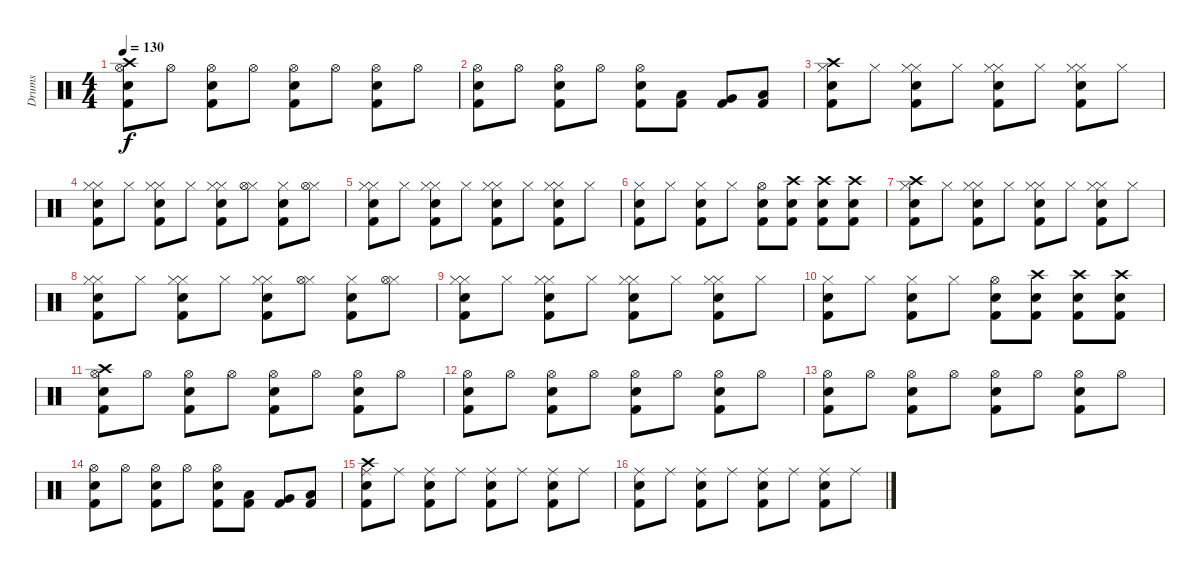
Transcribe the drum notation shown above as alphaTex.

\track ("Drums" "Drums") {instrument percussion}
\staff {score}
\articulation defaults
\ts (4 4)
\tempo 130
\clef neutral
\ks c
("Hi-Hat (open)" "Crash high (hit)" "Electric Snare (hit)" "Kick (hit) 2").8{dy f} "Hi-Hat (open)".8 ("Hi-Hat (open)" "Electric Snare (hit)" "Kick (hit) 2").8 "Hi-Hat (open)".8 ("Hi-Hat (open)" "Electric Snare (hit)" "Kick (hit) 2").8 "Hi-Hat (open)".8 ("Hi-Hat (open)" "Electric Snare (hit)" "Kick (hit) 2").8 "Hi-Hat (open)".8 |
("Hi-Hat (open)" "Electric Snare (hit)" "Kick (hit) 2").8 "Hi-Hat (open)".8 ("Hi-Hat (open)" "Electric Snare (hit)" "Kick (hit) 2").8 "Hi-Hat (open)".8 ("Hi-Hat (open)" "Electric Snare (hit)" "Kick (hit) 2").8 ("Low Tom (hit)" "Kick (hit) 2").8 ("Very Low Tom (hit)" "Kick (hit) 2").8 ("Low Floor Tom (hit)" "Kick (hit) 2").8 |
("Hi-Hat (closed)" "Crash high (hit)" "Electric Snare (hit)" "Kick (hit) 2").8 "Hi-Hat (closed)".8 ("Hi-Hat (closed)" "Hi-Hat (closed)" "Electric Snare (hit)" "Kick (hit) 2").8 "Hi-Hat (closed)".8 ("Hi-Hat (closed)" "Hi-Hat (closed)" "Electric Snare (hit)" "Kick (hit) 2").8 "Hi-Hat (closed)".8 ("Hi-Hat (closed)" "Hi-Hat (closed)" "Electric Snare (hit)" "Kick (hit) 2").8 "Hi-Hat (closed)".8 |
("Hi-Hat (closed)" "Hi-Hat (closed)" "Electric Snare (hit)" "Kick (hit) 2").8 "Hi-Hat (closed)".8 ("Hi-Hat (closed)" "Hi-Hat (closed)" "Electric Snare (hit)" "Kick (hit) 2").8 "Hi-Hat (closed)".8 ("Hi-Hat (closed)" "Hi-Hat (closed)" "Electric Snare (hit)" "Kick (hit) 2").8 ("Hi-Hat (closed)" "Hi-Hat (open)").8 ("Hi-Hat (closed)" "Electric Snare (hit)" "Kick (hit) 2").8 ("Hi-Hat (closed)" "Hi-Hat (open)").8 |
("Hi-Hat (closed)" "Hi-Hat (closed)" "Electric Snare (hit)" "Kick (hit) 2").8 "Hi-Hat (closed)".8 ("Hi-Hat (closed)" "Hi-Hat (closed)" "Electric Snare (hit)" "Kick (hit) 2").8 "Hi-Hat (closed)".8 ("Hi-Hat (closed)" "Hi-Hat (closed)" "Electric Snare (hit)" "Kick (hit) 2").8 "Hi-Hat (closed)".8 ("Hi-Hat (closed)" "Hi-Hat (closed)" "Electric Snare (hit)" "Kick (hit) 2").8 "Hi-Hat (closed)".8 |
("Hi-Hat (closed)" "Electric Snare (hit)" "Kick (hit) 2").8 "Hi-Hat (closed)".8 ("Hi-Hat (closed)" "Electric Snare (hit)" "Kick (hit) 2").8 "Hi-Hat (closed)".8 ("Hi-Hat (open)" "Electric Snare (hit)" "Kick (hit) 2").8 ("Crash high (hit)" "Electric Snare (hit)" "Kick (hit) 2").8 ("Crash high (hit)" "Electric Snare (hit)" "Kick (hit) 2").8 ("Crash high (hit)" "Electric Snare (hit)" "Kick (hit) 2").8 |
("Hi-Hat (closed)" "Crash high (hit)" "Electric Snare (hit)" "Kick (hit) 2").8 "Hi-Hat (closed)".8 ("Hi-Hat (closed)" "Hi-Hat (closed)" "Electric Snare (hit)" "Kick (hit) 2").8 "Hi-Hat (closed)".8 ("Hi-Hat (closed)" "Hi-Hat (closed)" "Electric Snare (hit)" "Kick (hit) 2").8 "Hi-Hat (closed)".8 ("Hi-Hat (closed)" "Hi-Hat (closed)" "Electric Snare (hit)" "Kick (hit) 2").8 "Hi-Hat (closed)".8 |
("Hi-Hat (closed)" "Hi-Hat (closed)" "Electric Snare (hit)" "Kick (hit) 2").8 "Hi-Hat (closed)".8 ("Hi-Hat (closed)" "Hi-Hat (closed)" "Electric Snare (hit)" "Kick (hit) 2").8 "Hi-Hat (closed)".8 ("Hi-Hat (closed)" "Hi-Hat (closed)" "Electric Snare (hit)" "Kick (hit) 2").8 ("Hi-Hat (closed)" "Hi-Hat (open)").8 ("Hi-Hat (closed)" "Electric Snare (hit)" "Kick (hit) 2").8 ("Hi-Hat (closed)" "Hi-Hat (open)").8 |
("Hi-Hat (closed)" "Hi-Hat (closed)" "Electric Snare (hit)" "Kick (hit) 2").8 "Hi-Hat (closed)".8 ("Hi-Hat (closed)" "Hi-Hat (closed)" "Electric Snare (hit)" "Kick (hit) 2").8 "Hi-Hat (closed)".8 ("Hi-Hat (closed)" "Hi-Hat (closed)" "Electric Snare (hit)" "Kick (hit) 2").8 "Hi-Hat (closed)".8 ("Hi-Hat (closed)" "Hi-Hat (closed)" "Electric Snare (hit)" "Kick (hit) 2").8 "Hi-Hat (closed)".8 |
("Hi-Hat (closed)" "Electric Snare (hit)" "Kick (hit) 2").8 "Hi-Hat (closed)".8 ("Hi-Hat (closed)" "Electric Snare (hit)" "Kick (hit) 2").8 "Hi-Hat (closed)".8 ("Hi-Hat (open)" "Electric Snare (hit)" "Kick (hit) 2").8 ("Crash high (hit)" "Electric Snare (hit)" "Kick (hit) 2").8 ("Crash high (hit)" "Electric Snare (hit)" "Kick (hit) 2").8 ("Crash high (hit)" "Electric Snare (hit)" "Kick (hit) 2").8 |
("Hi-Hat (open)" "Crash high (hit)" "Electric Snare (hit)" "Kick (hit) 2").8 "Hi-Hat (open)".8 ("Hi-Hat (open)" "Electric Snare (hit)" "Kick (hit) 2").8 "Hi-Hat (open)".8 ("Hi-Hat (open)" "Electric Snare (hit)" "Kick (hit) 2").8 "Hi-Hat (open)".8 ("Hi-Hat (open)" "Electric Snare (hit)" "Kick (hit) 2").8 "Hi-Hat (open)".8 |
("Hi-Hat (open)" "Electric Snare (hit)" "Kick (hit) 2").8 "Hi-Hat (open)".8 ("Hi-Hat (open)" "Electric Snare (hit)" "Kick (hit) 2").8 "Hi-Hat (open)".8 ("Hi-Hat (open)" "Electric Snare (hit)" "Kick (hit) 2").8 "Hi-Hat (open)".8 ("Hi-Hat (open)" "Electric Snare (hit)" "Kick (hit) 2").8 "Hi-Hat (open)".8 |
("Hi-Hat (open)" "Electric Snare (hit)" "Kick (hit) 2").8 "Hi-Hat (open)".8 ("Hi-Hat (open)" "Electric Snare (hit)" "Kick (hit) 2").8 "Hi-Hat (open)".8 ("Hi-Hat (open)" "Electric Snare (hit)" "Kick (hit) 2").8 "Hi-Hat (open)".8 ("Hi-Hat (open)" "Electric Snare (hit)" "Kick (hit) 2").8 "Hi-Hat (open)".8 |
("Hi-Hat (open)" "Electric Snare (hit)" "Kick (hit) 2").8 "Hi-Hat (open)".8 ("Hi-Hat (open)" "Electric Snare (hit)" "Kick (hit) 2").8 "Hi-Hat (open)".8 ("Hi-Hat (open)" "Electric Snare (hit)" "Kick (hit) 2").8 ("Low Tom (hit)" "Kick (hit) 2").8 ("Very Low Tom (hit)" "Kick (hit) 2").8 ("Low Floor Tom (hit)" "Kick (hit) 2").8 |
("Ride (middle)" "Crash high (hit)" "Electric Snare (hit)" "Kick (hit) 2").8 "Ride (middle)".8 ("Ride (middle)" "Electric Snare (hit)" "Kick (hit) 2").8 "Ride (middle)".8 ("Ride (middle)" "Electric Snare (hit)" "Kick (hit) 2").8 "Ride (middle)".8 ("Ride (middle)" "Electric Snare (hit)" "Kick (hit) 2").8 "Ride (middle)".8 |
("Ride (middle)" "Electric Snare (hit)" "Kick (hit) 2").8 "Ride (middle)".8 ("Ride (middle)" "Electric Snare (hit)" "Kick (hit) 2").8 "Ride (middle)".8 ("Ride (middle)" "Electric Snare (hit)" "Kick (hit) 2").8 "Ride (middle)".8 ("Ride (middle)" "Electric Snare (hit)" "Kick (hit) 2").8 "Ride (middle)".8
